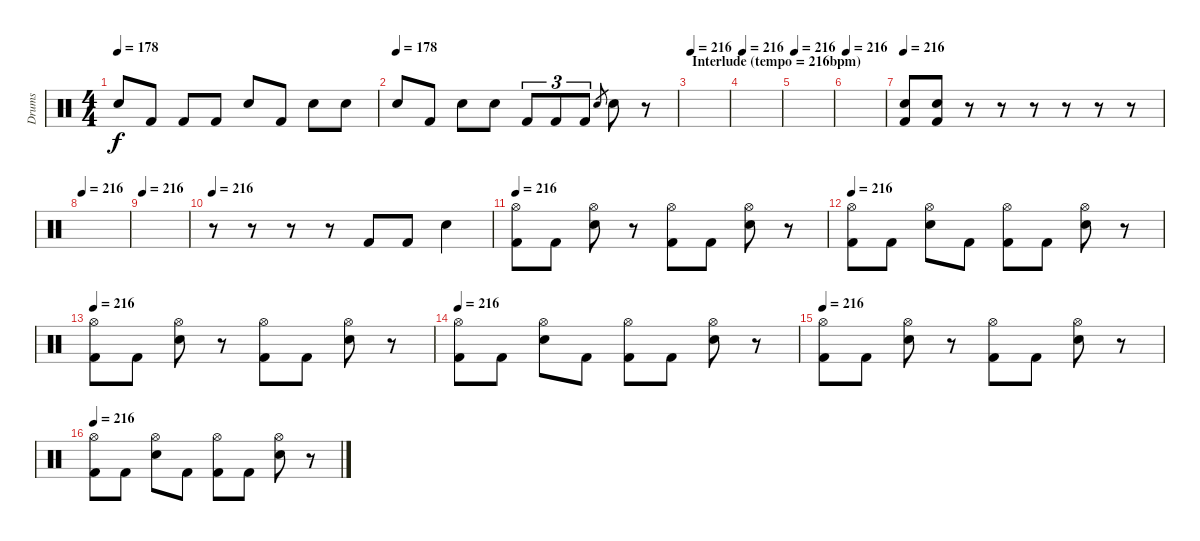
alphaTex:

\track ("Drums" "Drums") {instrument percussion}
\staff {score}
\articulation defaults
\ts (4 4)
\tempo 178
\clef neutral
\ks c "Snare (hit) 2".8{dy f} "Kick (hit) 2".8 "Kick (hit) 2".8 "Kick (hit) 2".8 "Snare (hit) 2".8 "Kick (hit) 2".8 "Snare (hit) 2".8 "Snare (hit) 2".8
|
\tempo (178)
"Snare (hit) 2".8 "Kick (hit) 2".8 "Snare (hit) 2".8 "Snare (hit) 2".8 "Kick (hit) 2".8{tu (3 2)} "Kick (hit) 2".8{tu (3 2)} "Kick (hit) 2".8{tu (3 2)} "Snare (hit) 2".8{gr} "Snare (hit) 2".8 r.8 |
\section ("" "Interlude (tempo = 216bpm)")
\tempo 216
|
\tempo 216
|
\tempo 216
|
\tempo 216
|
\tempo 216
("Snare (hit) 2" "Kick (hit) 2").8 ("Snare (hit) 2" "Kick (hit) 2").8 r.8 r.8 r.8 r.8 r.8 r.8 |
\tempo 216
|
\tempo 216
|
\tempo 216
r.8 r.8 r.8 r.8 "Kick (hit) 2".8 "Kick (hit) 2".8 "Snare (hit) 2".4 |
\tempo 216
("Hi-Hat (open)" "Kick (hit) 2").8 "Kick (hit) 2".8 ("Hi-Hat (open)" "Snare (hit) 2").8 r.8 ("Hi-Hat (open)" "Kick (hit) 2").8 "Kick (hit) 2".8 ("Hi-Hat (open)" "Snare (hit) 2").8 r.8 |
\tempo 216
("Hi-Hat (open)" "Kick (hit) 2").8 "Kick (hit) 2".8 ("Hi-Hat (open)" "Snare (hit) 2").8 "Kick (hit) 2".8 ("Hi-Hat (open)" "Kick (hit) 2").8 "Kick (hit) 2".8 ("Hi-Hat (open)" "Snare (hit) 2").8 r.8 |
\tempo 216
("Hi-Hat (open)" "Kick (hit) 2").8 "Kick (hit) 2".8 ("Hi-Hat (open)" "Snare (hit) 2").8 r.8 ("Hi-Hat (open)" "Kick (hit) 2").8 "Kick (hit) 2".8 ("Hi-Hat (open)" "Snare (hit) 2").8 r.8 |
\tempo 216
("Hi-Hat (open)" "Kick (hit) 2").8 "Kick (hit) 2".8 ("Hi-Hat (open)" "Snare (hit) 2").8 "Kick (hit) 2".8 ("Hi-Hat (open)" "Kick (hit) 2").8 "Kick (hit) 2".8 ("Hi-Hat (open)" "Snare (hit) 2").8 r.8 |
\tempo 216
("Hi-Hat (open)" "Kick (hit) 2").8 "Kick (hit) 2".8 ("Hi-Hat (open)" "Snare (hit) 2").8 r.8 ("Hi-Hat (open)" "Kick (hit) 2").8 "Kick (hit) 2".8 ("Hi-Hat (open)" "Snare (hit) 2").8 r.8 |
\tempo 216
("Hi-Hat (open)" "Kick (hit) 2").8 "Kick (hit) 2".8 ("Hi-Hat (open)" "Snare (hit) 2").8 "Kick (hit) 2".8 ("Hi-Hat (open)" "Kick (hit) 2").8 "Kick (hit) 2".8 ("Hi-Hat (open)" "Snare (hit) 2").8 r.8
